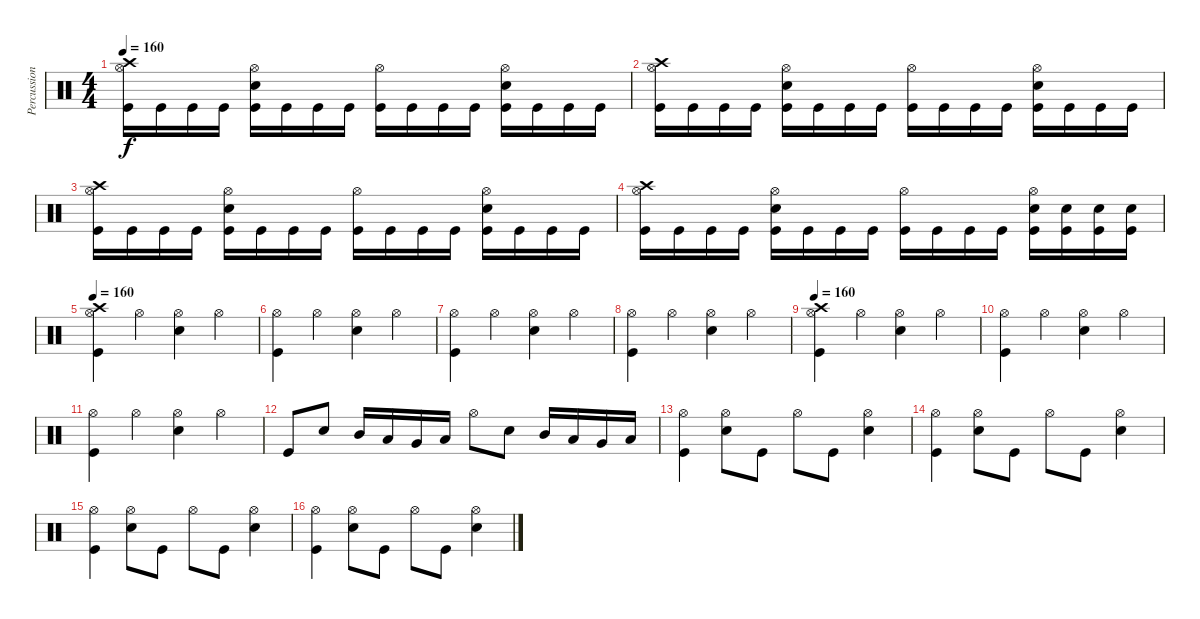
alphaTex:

\track ("Percussion" "Percussion") {instrument percussion}
\staff {score}
\articulation defaults
\ts (4 4)
\tempo 160
\clef neutral
\ks c
("Crash high (hit)" "Hi-Hat (open)" "Kick (hit)").16{dy f} "Kick (hit)".16 "Kick (hit)".16 "Kick (hit)".16 ("Electric Snare (hit)" "Hi-Hat (open)" "Kick (hit)").16 "Kick (hit)".16 "Kick (hit)".16 "Kick (hit)".16 ("Hi-Hat (open)" "Kick (hit)").16 "Kick (hit)".16 "Kick (hit)".16 "Kick (hit)".16 ("Electric Snare (hit)" "Hi-Hat (open)" "Kick (hit)").16 "Kick (hit)".16 "Kick (hit)".16 "Kick (hit)".16 |
("Crash high (hit)" "Hi-Hat (open)" "Kick (hit)").16 "Kick (hit)".16 "Kick (hit)".16 "Kick (hit)".16 ("Electric Snare (hit)" "Hi-Hat (open)" "Kick (hit)").16 "Kick (hit)".16 "Kick (hit)".16 "Kick (hit)".16 ("Hi-Hat (open)" "Kick (hit)").16 "Kick (hit)".16 "Kick (hit)".16 "Kick (hit)".16 ("Electric Snare (hit)" "Hi-Hat (open)" "Kick (hit)").16 "Kick (hit)".16 "Kick (hit)".16 "Kick (hit)".16 |
("Crash high (hit)" "Hi-Hat (open)" "Kick (hit)").16 "Kick (hit)".16 "Kick (hit)".16 "Kick (hit)".16 ("Electric Snare (hit)" "Hi-Hat (open)" "Kick (hit)").16 "Kick (hit)".16 "Kick (hit)".16 "Kick (hit)".16 ("Hi-Hat (open)" "Kick (hit)").16 "Kick (hit)".16 "Kick (hit)".16 "Kick (hit)".16 ("Electric Snare (hit)" "Hi-Hat (open)" "Kick (hit)").16 "Kick (hit)".16 "Kick (hit)".16 "Kick (hit)".16 |
("Crash high (hit)" "Hi-Hat (open)" "Kick (hit)").16 "Kick (hit)".16 "Kick (hit)".16 "Kick (hit)".16 ("Electric Snare (hit)" "Hi-Hat (open)" "Kick (hit)").16 "Kick (hit)".16 "Kick (hit)".16 "Kick (hit)".16 ("Hi-Hat (open)" "Kick (hit)").16 "Kick (hit)".16 "Kick (hit)".16 "Kick (hit)".16 ("Hi-Hat (open)" "Electric Snare (hit)" "Kick (hit)").16 ("Electric Snare (hit)" "Kick (hit)").16 ("Electric Snare (hit)" "Kick (hit)").16 ("Electric Snare (hit)" "Kick (hit)").16 |
\tempo 160
("Crash high (hit)" "Hi-Hat (open)" "Kick (hit)").4 "Hi-Hat (open)".4 ("Hi-Hat (open)" "Electric Snare (hit)").4 "Hi-Hat (open)".4 |
("Hi-Hat (open)" "Kick (hit)").4 "Hi-Hat (open)".4 ("Hi-Hat (open)" "Electric Snare (hit)").4 "Hi-Hat (open)".4 |
("Hi-Hat (open)" "Kick (hit)").4 "Hi-Hat (open)".4 ("Hi-Hat (open)" "Electric Snare (hit)").4 "Hi-Hat (open)".4 |
("Hi-Hat (open)" "Kick (hit)").4 "Hi-Hat (open)".4 ("Hi-Hat (open)" "Electric Snare (hit)").4 "Hi-Hat (open)".4 |
\tempo 160
("Crash high (hit)" "Hi-Hat (open)" "Kick (hit)").4 "Hi-Hat (open)".4 ("Hi-Hat (open)" "Electric Snare (hit)").4 "Hi-Hat (open)".4 |
("Hi-Hat (open)" "Kick (hit)").4 "Hi-Hat (open)".4 ("Hi-Hat (open)" "Electric Snare (hit)").4 "Hi-Hat (open)".4 |
("Hi-Hat (open)" "Kick (hit)").4 "Hi-Hat (open)".4 ("Hi-Hat (open)" "Electric Snare (hit)").4 "Hi-Hat (open)".4 |
"Kick (hit)".8 "Electric Snare (hit)".8 "Mid Tom (hit)".16 "Low Tom (hit)".16 "Very Low Tom (hit)".16 "Low Floor Tom (hit)".16 "Hi-Hat (open)".8 "Electric Snare (hit)".8 "Mid Tom (hit)".16 "Low Tom (hit)".16 "Very Low Tom (hit)".16 "Low Floor Tom (hit)".16 |
("Hi-Hat (open)" "Kick (hit)").4 ("Hi-Hat (open)" "Electric Snare (hit)").8 "Kick (hit)".8 "Hi-Hat (open)".8 "Kick (hit)".8 ("Hi-Hat (open)" "Electric Snare (hit)").4 |
("Hi-Hat (open)" "Kick (hit)").4 ("Hi-Hat (open)" "Electric Snare (hit)").8 "Kick (hit)".8 "Hi-Hat (open)".8 "Kick (hit)".8 ("Hi-Hat (open)" "Electric Snare (hit)").4 |
("Hi-Hat (open)" "Kick (hit)").4 ("Hi-Hat (open)" "Electric Snare (hit)").8 "Kick (hit)".8 "Hi-Hat (open)".8 "Kick (hit)".8 ("Hi-Hat (open)" "Electric Snare (hit)").4 |
("Hi-Hat (open)" "Kick (hit)").4 ("Hi-Hat (open)" "Electric Snare (hit)").8 "Kick (hit)".8 "Hi-Hat (open)".8 "Kick (hit)".8 ("Hi-Hat (open)" "Electric Snare (hit)").4
